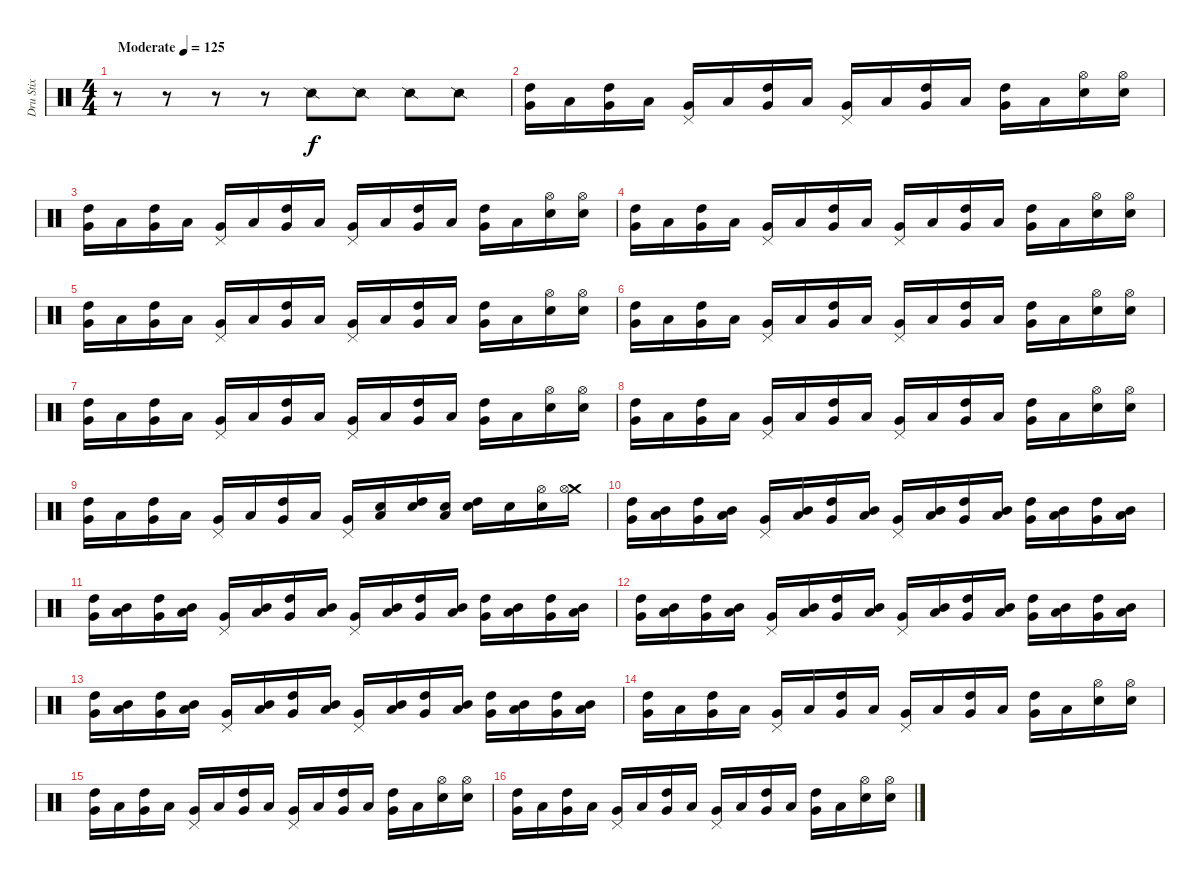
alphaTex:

\track ("Dru Stix" "Dru Stix") {instrument percussion}
\staff {score}
\articulation defaults
\ts (4 4)
\tempo (125 "Moderate")
\clef neutral
\ks c
r.8{dy f} r.8 r.8 r.8 "Snare (side stick) 2".8 "Snare (side stick) 2".8 "Snare (side stick) 2".8 "Snare (side stick) 2".8 |
("High Tom (hit)" "Very Low Tom (hit)").16 "Low Floor Tom (hit)".16 ("High Tom (hit)" "Very Low Tom (hit)").16 "Low Floor Tom (hit)".16 ("Pedal Hi-Hat (hit)" "Very Low Tom (hit)").16 "Low Floor Tom (hit)".16 ("High Tom (hit)" "Very Low Tom (hit)").16 "Low Floor Tom (hit)".16 ("Pedal Hi-Hat (hit)" "Very Low Tom (hit)").16 "Low Floor Tom (hit)".16 ("High Tom (hit)" "Very Low Tom (hit)").16 "Low Floor Tom (hit)".16 ("High Tom (hit)" "Very Low Tom (hit)").16 "Low Floor Tom (hit)".16 ("Hi-Hat (open)" "Snare (hit) 2").16 ("Hi-Hat (open)" "Snare (hit) 2").16 |
("High Tom (hit)" "Very Low Tom (hit)").16 "Low Floor Tom (hit)".16 ("High Tom (hit)" "Very Low Tom (hit)").16 "Low Floor Tom (hit)".16 ("Pedal Hi-Hat (hit)" "Very Low Tom (hit)").16 "Low Floor Tom (hit)".16 ("High Tom (hit)" "Very Low Tom (hit)").16 "Low Floor Tom (hit)".16 ("Pedal Hi-Hat (hit)" "Very Low Tom (hit)").16 "Low Floor Tom (hit)".16 ("High Tom (hit)" "Very Low Tom (hit)").16 "Low Floor Tom (hit)".16 ("High Tom (hit)" "Very Low Tom (hit)").16 "Low Floor Tom (hit)".16 ("Hi-Hat (open)" "Snare (hit) 2").16 ("Hi-Hat (open)" "Snare (hit) 2").16 |
("High Tom (hit)" "Very Low Tom (hit)").16 "Low Floor Tom (hit)".16 ("High Tom (hit)" "Very Low Tom (hit)").16 "Low Floor Tom (hit)".16 ("Pedal Hi-Hat (hit)" "Very Low Tom (hit)").16 "Low Floor Tom (hit)".16 ("High Tom (hit)" "Very Low Tom (hit)").16 "Low Floor Tom (hit)".16 ("Pedal Hi-Hat (hit)" "Very Low Tom (hit)").16 "Low Floor Tom (hit)".16 ("High Tom (hit)" "Very Low Tom (hit)").16 "Low Floor Tom (hit)".16 ("High Tom (hit)" "Very Low Tom (hit)").16 "Low Floor Tom (hit)".16 ("Hi-Hat (open)" "Snare (hit) 2").16 ("Hi-Hat (open)" "Snare (hit) 2").16 |
("High Tom (hit)" "Very Low Tom (hit)").16 "Low Floor Tom (hit)".16 ("High Tom (hit)" "Very Low Tom (hit)").16 "Low Floor Tom (hit)".16 ("Pedal Hi-Hat (hit)" "Very Low Tom (hit)").16 "Low Floor Tom (hit)".16 ("High Tom (hit)" "Very Low Tom (hit)").16 "Low Floor Tom (hit)".16 ("Pedal Hi-Hat (hit)" "Very Low Tom (hit)").16 "Low Floor Tom (hit)".16 ("High Tom (hit)" "Very Low Tom (hit)").16 "Low Floor Tom (hit)".16 ("High Tom (hit)" "Very Low Tom (hit)").16 "Low Floor Tom (hit)".16 ("Hi-Hat (open)" "Snare (hit) 2").16 ("Hi-Hat (open)" "Snare (hit) 2").16 |
("High Tom (hit)" "Very Low Tom (hit)").16 "Low Floor Tom (hit)".16 ("High Tom (hit)" "Very Low Tom (hit)").16 "Low Floor Tom (hit)".16 ("Pedal Hi-Hat (hit)" "Very Low Tom (hit)").16 "Low Floor Tom (hit)".16 ("High Tom (hit)" "Very Low Tom (hit)").16 "Low Floor Tom (hit)".16 ("Pedal Hi-Hat (hit)" "Very Low Tom (hit)").16 "Low Floor Tom (hit)".16 ("High Tom (hit)" "Very Low Tom (hit)").16 "Low Floor Tom (hit)".16 ("High Tom (hit)" "Very Low Tom (hit)").16 "Low Floor Tom (hit)".16 ("Hi-Hat (open)" "Snare (hit) 2").16 ("Hi-Hat (open)" "Snare (hit) 2").16 |
("High Tom (hit)" "Very Low Tom (hit)").16 "Low Floor Tom (hit)".16 ("High Tom (hit)" "Very Low Tom (hit)").16 "Low Floor Tom (hit)".16 ("Pedal Hi-Hat (hit)" "Very Low Tom (hit)").16 "Low Floor Tom (hit)".16 ("High Tom (hit)" "Very Low Tom (hit)").16 "Low Floor Tom (hit)".16 ("Pedal Hi-Hat (hit)" "Very Low Tom (hit)").16 "Low Floor Tom (hit)".16 ("High Tom (hit)" "Very Low Tom (hit)").16 "Low Floor Tom (hit)".16 ("High Tom (hit)" "Very Low Tom (hit)").16 "Low Floor Tom (hit)".16 ("Hi-Hat (open)" "Snare (hit) 2").16 ("Hi-Hat (open)" "Snare (hit) 2").16 |
("High Tom (hit)" "Very Low Tom (hit)").16 "Low Floor Tom (hit)".16 ("High Tom (hit)" "Very Low Tom (hit)").16 "Low Floor Tom (hit)".16 ("Pedal Hi-Hat (hit)" "Very Low Tom (hit)").16 "Low Floor Tom (hit)".16 ("High Tom (hit)" "Very Low Tom (hit)").16 "Low Floor Tom (hit)".16 ("Pedal Hi-Hat (hit)" "Very Low Tom (hit)").16 "Low Floor Tom (hit)".16 ("High Tom (hit)" "Very Low Tom (hit)").16 "Low Floor Tom (hit)".16 ("High Tom (hit)" "Very Low Tom (hit)").16 "Low Floor Tom (hit)".16 ("Hi-Hat (open)" "Snare (hit) 2").16 ("Hi-Hat (open)" "Snare (hit) 2").16 |
("High Tom (hit)" "Very Low Tom (hit)").16 "Low Floor Tom (hit)".16 ("High Tom (hit)" "Very Low Tom (hit)").16 "Low Floor Tom (hit)".16 ("Pedal Hi-Hat (hit)" "Very Low Tom (hit)").16 "Low Floor Tom (hit)".16 ("High Tom (hit)" "Very Low Tom (hit)").16 "Low Floor Tom (hit)".16 ("Pedal Hi-Hat (hit)" "Very Low Tom (hit)").16 ("Low Floor Tom (hit)" "Snare (hit) 2").16 ("High Tom (hit)" "Snare (hit) 2").16 ("Low Floor Tom (hit)" "Snare (hit) 2").16 ("High Tom (hit)" "Snare (hit) 2").16 "Snare (hit) 2".16 ("Hi-Hat (open)" "Snare (hit) 2").16 ("Crash medium (hit)" "Hi-Hat (open)").16 |
("High Tom (hit)" "Very Low Tom (hit)").16 ("Mid Tom (hit)" "Low Floor Tom (hit)").16 ("High Tom (hit)" "Very Low Tom (hit)").16 ("Mid Tom (hit)" "Low Floor Tom (hit)").16 ("Pedal Hi-Hat (hit)" "Very Low Tom (hit)").16 ("Mid Tom (hit)" "Low Floor Tom (hit)").16 ("High Tom (hit)" "Very Low Tom (hit)").16 ("Mid Tom (hit)" "Low Floor Tom (hit)").16 ("Pedal Hi-Hat (hit)" "Very Low Tom (hit)").16 ("Mid Tom (hit)" "Low Floor Tom (hit)").16 ("High Tom (hit)" "Very Low Tom (hit)").16 ("Mid Tom (hit)" "Low Floor Tom (hit)").16 ("High Tom (hit)" "Very Low Tom (hit)").16 ("Mid Tom (hit)" "Low Floor Tom (hit)").16 ("High Tom (hit)" "Very Low Tom (hit)").16 ("Mid Tom (hit)" "Low Floor Tom (hit)").16 |
("High Tom (hit)" "Very Low Tom (hit)").16 ("Mid Tom (hit)" "Low Floor Tom (hit)").16 ("High Tom (hit)" "Very Low Tom (hit)").16 ("Mid Tom (hit)" "Low Floor Tom (hit)").16 ("Pedal Hi-Hat (hit)" "Very Low Tom (hit)").16 ("Mid Tom (hit)" "Low Floor Tom (hit)").16 ("High Tom (hit)" "Very Low Tom (hit)").16 ("Mid Tom (hit)" "Low Floor Tom (hit)").16 ("Pedal Hi-Hat (hit)" "Very Low Tom (hit)").16 ("Mid Tom (hit)" "Low Floor Tom (hit)").16 ("High Tom (hit)" "Very Low Tom (hit)").16 ("Mid Tom (hit)" "Low Floor Tom (hit)").16 ("High Tom (hit)" "Very Low Tom (hit)").16 ("Mid Tom (hit)" "Low Floor Tom (hit)").16 ("High Tom (hit)" "Very Low Tom (hit)").16 ("Mid Tom (hit)" "Low Floor Tom (hit)").16 |
("High Tom (hit)" "Very Low Tom (hit)").16 ("Mid Tom (hit)" "Low Floor Tom (hit)").16 ("High Tom (hit)" "Very Low Tom (hit)").16 ("Mid Tom (hit)" "Low Floor Tom (hit)").16 ("Pedal Hi-Hat (hit)" "Very Low Tom (hit)").16 ("Mid Tom (hit)" "Low Floor Tom (hit)").16 ("High Tom (hit)" "Very Low Tom (hit)").16 ("Mid Tom (hit)" "Low Floor Tom (hit)").16 ("Pedal Hi-Hat (hit)" "Very Low Tom (hit)").16 ("Mid Tom (hit)" "Low Floor Tom (hit)").16 ("High Tom (hit)" "Very Low Tom (hit)").16 ("Mid Tom (hit)" "Low Floor Tom (hit)").16 ("High Tom (hit)" "Very Low Tom (hit)").16 ("Mid Tom (hit)" "Low Floor Tom (hit)").16 ("High Tom (hit)" "Very Low Tom (hit)").16 ("Mid Tom (hit)" "Low Floor Tom (hit)").16 |
("High Tom (hit)" "Very Low Tom (hit)").16 ("Mid Tom (hit)" "Low Floor Tom (hit)").16 ("High Tom (hit)" "Very Low Tom (hit)").16 ("Mid Tom (hit)" "Low Floor Tom (hit)").16 ("Pedal Hi-Hat (hit)" "Very Low Tom (hit)").16 ("Mid Tom (hit)" "Low Floor Tom (hit)").16 ("High Tom (hit)" "Very Low Tom (hit)").16 ("Mid Tom (hit)" "Low Floor Tom (hit)").16 ("Pedal Hi-Hat (hit)" "Very Low Tom (hit)").16 ("Mid Tom (hit)" "Low Floor Tom (hit)").16 ("High Tom (hit)" "Very Low Tom (hit)").16 ("Mid Tom (hit)" "Low Floor Tom (hit)").16 ("High Tom (hit)" "Very Low Tom (hit)").16 ("Mid Tom (hit)" "Low Floor Tom (hit)").16 ("High Tom (hit)" "Very Low Tom (hit)").16 ("Mid Tom (hit)" "Low Floor Tom (hit)").16 |
("High Tom (hit)" "Very Low Tom (hit)").16 "Low Floor Tom (hit)".16 ("High Tom (hit)" "Very Low Tom (hit)").16 "Low Floor Tom (hit)".16 ("Pedal Hi-Hat (hit)" "Very Low Tom (hit)").16 "Low Floor Tom (hit)".16 ("High Tom (hit)" "Very Low Tom (hit)").16 "Low Floor Tom (hit)".16 ("Pedal Hi-Hat (hit)" "Very Low Tom (hit)").16 "Low Floor Tom (hit)".16 ("High Tom (hit)" "Very Low Tom (hit)").16 "Low Floor Tom (hit)".16 ("High Tom (hit)" "Very Low Tom (hit)").16 "Low Floor Tom (hit)".16 ("Hi-Hat (open)" "Snare (hit) 2").16 ("Hi-Hat (open)" "Snare (hit) 2").16 |
("High Tom (hit)" "Very Low Tom (hit)").16 "Low Floor Tom (hit)".16 ("High Tom (hit)" "Very Low Tom (hit)").16 "Low Floor Tom (hit)".16 ("Pedal Hi-Hat (hit)" "Very Low Tom (hit)").16 "Low Floor Tom (hit)".16 ("High Tom (hit)" "Very Low Tom (hit)").16 "Low Floor Tom (hit)".16 ("Pedal Hi-Hat (hit)" "Very Low Tom (hit)").16 "Low Floor Tom (hit)".16 ("High Tom (hit)" "Very Low Tom (hit)").16 "Low Floor Tom (hit)".16 ("High Tom (hit)" "Very Low Tom (hit)").16 "Low Floor Tom (hit)".16 ("Hi-Hat (open)" "Snare (hit) 2").16 ("Hi-Hat (open)" "Snare (hit) 2").16 |
("High Tom (hit)" "Very Low Tom (hit)").16 "Low Floor Tom (hit)".16 ("High Tom (hit)" "Very Low Tom (hit)").16 "Low Floor Tom (hit)".16 ("Pedal Hi-Hat (hit)" "Very Low Tom (hit)").16 "Low Floor Tom (hit)".16 ("High Tom (hit)" "Very Low Tom (hit)").16 "Low Floor Tom (hit)".16 ("Pedal Hi-Hat (hit)" "Very Low Tom (hit)").16 "Low Floor Tom (hit)".16 ("High Tom (hit)" "Very Low Tom (hit)").16 "Low Floor Tom (hit)".16 ("High Tom (hit)" "Very Low Tom (hit)").16 "Low Floor Tom (hit)".16 ("Hi-Hat (open)" "Snare (hit) 2").16 ("Hi-Hat (open)" "Snare (hit) 2").16
